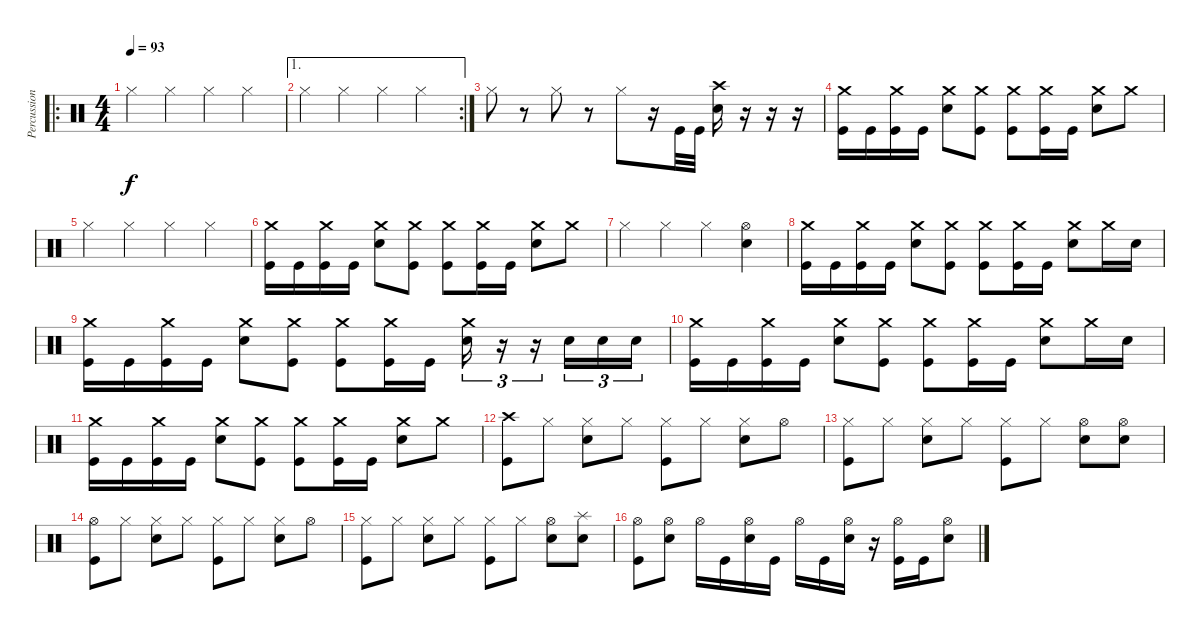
\track ("Percussion" "Percussion") {instrument percussion}
\staff {score}
\articulation defaults
\ro
\ts (4 4)
\tempo 93
\clef neutral
\ks c "Hi-Hat (closed)".4{dy f} "Hi-Hat (closed)".4 "Hi-Hat (closed)".4 "Hi-Hat (closed)".4
|
\ae 1
\rc 2 "Hi-Hat (closed)".4 "Hi-Hat (closed)".4 "Hi-Hat (closed)".4 "Hi-Hat (closed)".4
|
"Hi-Hat (closed)".8 r.8 "Hi-Hat (closed)".8 r.8 "Hi-Hat (closed)".8 r.16 "Kick (hit)".32 "Kick (hit)".32 ("Crash high (hit)" "Electric Snare (hit)").16 r.16 r.16 r.16 |
("Crash medium (hit)" "Kick (hit)").16 "Kick (hit)".16 ("Crash medium (hit)" "Kick (hit)").16 "Kick (hit)".16 ("Crash medium (hit)" "Electric Snare (hit)").8 ("Crash medium (hit)" "Kick (hit)").8 ("Crash medium (hit)" "Kick (hit)").8 ("Crash medium (hit)" "Kick (hit)").16 "Kick (hit)".16 ("Crash medium (hit)" "Electric Snare (hit)").8 "Crash medium (hit)".8 |
"Hi-Hat (closed)".4 "Hi-Hat (closed)".4 "Hi-Hat (closed)".4 "Hi-Hat (closed)".4 |
("Crash medium (hit)" "Kick (hit)").16 "Kick (hit)".16 ("Crash medium (hit)" "Kick (hit)").16 "Kick (hit)".16 ("Crash medium (hit)" "Electric Snare (hit)").8 ("Crash medium (hit)" "Kick (hit)").8 ("Crash medium (hit)" "Kick (hit)").8 ("Crash medium (hit)" "Kick (hit)").16 "Kick (hit)".16 ("Crash medium (hit)" "Electric Snare (hit)").8 "Crash medium (hit)".8 |
"Hi-Hat (closed)".4 "Hi-Hat (closed)".4 "Hi-Hat (closed)".4 ("Hi-Hat (open)" "Electric Snare (hit)").4 |
("Crash medium (hit)" "Kick (hit)").16 "Kick (hit)".16 ("Crash medium (hit)" "Kick (hit)").16 "Kick (hit)".16 ("Crash medium (hit)" "Electric Snare (hit)").8 ("Crash medium (hit)" "Kick (hit)").8 ("Crash medium (hit)" "Kick (hit)").8 ("Crash medium (hit)" "Kick (hit)").16 "Kick (hit)".16 ("Crash medium (hit)" "Electric Snare (hit)").8 "Crash medium (hit)".16 "Electric Snare (hit)".16 |
("Crash medium (hit)" "Kick (hit)").16 "Kick (hit)".16 ("Crash medium (hit)" "Kick (hit)").16 "Kick (hit)".16 ("Crash medium (hit)" "Electric Snare (hit)").8 ("Crash medium (hit)" "Kick (hit)").8 ("Crash medium (hit)" "Kick (hit)").8 ("Crash medium (hit)" "Kick (hit)").16 "Kick (hit)".16 ("Crash medium (hit)" "Electric Snare (hit)").16{tu (3 2)} r.16{tu (3 2)} r.16{tu (3 2)} "Electric Snare (hit)".16{tu (3 2)} "Electric Snare (hit)".16{tu (3 2)} "Electric Snare (hit)".16{tu (3 2)} |
("Crash medium (hit)" "Kick (hit)").16 "Kick (hit)".16 ("Crash medium (hit)" "Kick (hit)").16 "Kick (hit)".16 ("Crash medium (hit)" "Electric Snare (hit)").8 ("Crash medium (hit)" "Kick (hit)").8 ("Crash medium (hit)" "Kick (hit)").8 ("Crash medium (hit)" "Kick (hit)").16 "Kick (hit)".16 ("Crash medium (hit)" "Electric Snare (hit)").8 "Crash medium (hit)".16 "Electric Snare (hit)".16 |
("Crash medium (hit)" "Kick (hit)").16 "Kick (hit)".16 ("Crash medium (hit)" "Kick (hit)").16 "Kick (hit)".16 ("Crash medium (hit)" "Electric Snare (hit)").8 ("Crash medium (hit)" "Kick (hit)").8 ("Crash medium (hit)" "Kick (hit)").8 ("Crash medium (hit)" "Kick (hit)").16 "Kick (hit)".16 ("Crash medium (hit)" "Electric Snare (hit)").8 "Crash medium (hit)".8 |
("Crash high (hit)" "Kick (hit)").8 "Hi-Hat (closed)".8 ("Hi-Hat (closed)" "Electric Snare (hit)").8 "Hi-Hat (closed)".8 ("Hi-Hat (closed)" "Kick (hit)").8 "Hi-Hat (closed)".8 ("Hi-Hat (closed)" "Electric Snare (hit)").8 "Hi-Hat (open)".8 |
("Hi-Hat (closed)" "Kick (hit)").8 "Hi-Hat (closed)".8 ("Hi-Hat (closed)" "Electric Snare (hit)").8 "Hi-Hat (closed)".8 ("Hi-Hat (closed)" "Kick (hit)").8 "Hi-Hat (closed)".8 ("Hi-Hat (open)" "Electric Snare (hit)").8 ("Hi-Hat (open)" "Electric Snare (hit)").8 |
("Hi-Hat (open)" "Kick (hit)").8 "Hi-Hat (closed)".8 ("Hi-Hat (closed)" "Electric Snare (hit)").8 "Hi-Hat (closed)".8 ("Hi-Hat (closed)" "Kick (hit)").8 "Hi-Hat (closed)".8 ("Hi-Hat (closed)" "Electric Snare (hit)").8 "Hi-Hat (open)".8 |
("Hi-Hat (closed)" "Kick (hit)").8 "Hi-Hat (closed)".8 ("Hi-Hat (closed)" "Electric Snare (hit)").8 "Hi-Hat (closed)".8 ("Hi-Hat (closed)" "Kick (hit)").8 "Hi-Hat (closed)".8 ("Hi-Hat (open)" "Electric Snare (hit)").8 ("Splash (hit)" "Electric Snare (hit)").8 |
("Hi-Hat (open)" "Kick (hit)").8 ("Hi-Hat (open)" "Electric Snare (hit)").8 "Hi-Hat (open)".16 "Kick (hit)".16 ("Hi-Hat (open)" "Electric Snare (hit)").16 "Kick (hit)".16 "Hi-Hat (open)".16 "Kick (hit)".16 ("Hi-Hat (open)" "Electric Snare (hit)").16 r.16 ("Hi-Hat (open)" "Kick (hit)").16 "Kick (hit)".16 ("Hi-Hat (open)" "Electric Snare (hit)").8
